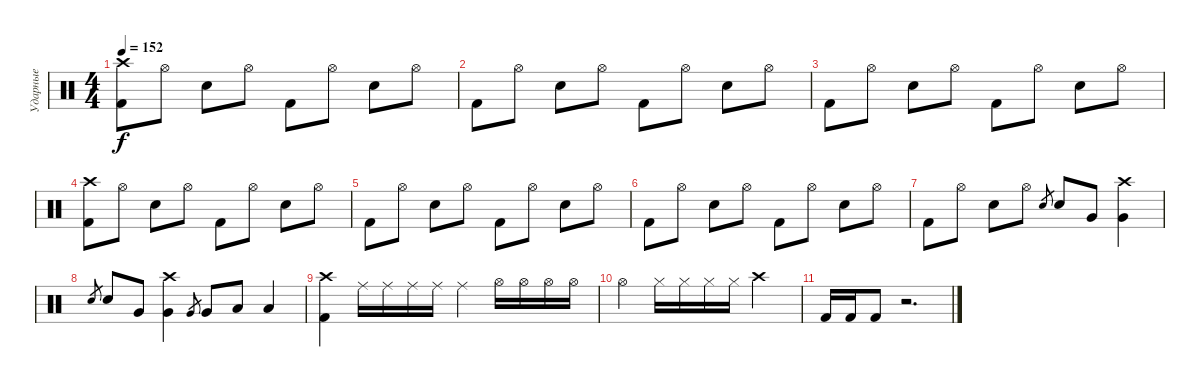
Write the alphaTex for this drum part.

\track ("Ударные" "Ударные") {instrument percussion}
\staff {score}
\articulation defaults
\ts (4 4)
\tempo 152
\clef neutral
\ks c
("Crash high (hit)" "Kick (hit) 2").8{dy f} "Hi-Hat (open)".8 "Electric Snare (hit)".8 "Hi-Hat (open)".8 "Kick (hit) 2".8 "Hi-Hat (open)".8 "Electric Snare (hit)".8 "Hi-Hat (open)".8 |
"Kick (hit) 2".8 "Hi-Hat (open)".8 "Electric Snare (hit)".8 "Hi-Hat (open)".8 "Kick (hit) 2".8 "Hi-Hat (open)".8 "Electric Snare (hit)".8 "Hi-Hat (open)".8 |
"Kick (hit) 2".8 "Hi-Hat (open)".8 "Electric Snare (hit)".8 "Hi-Hat (open)".8 "Kick (hit) 2".8 "Hi-Hat (open)".8 "Electric Snare (hit)".8 "Hi-Hat (open)".8 |
("Crash high (hit)" "Kick (hit) 2").8 "Hi-Hat (open)".8 "Electric Snare (hit)".8 "Hi-Hat (open)".8 "Kick (hit) 2".8 "Hi-Hat (open)".8 "Electric Snare (hit)".8 "Hi-Hat (open)".8 |
"Kick (hit) 2".8 "Hi-Hat (open)".8 "Electric Snare (hit)".8 "Hi-Hat (open)".8 "Kick (hit) 2".8 "Hi-Hat (open)".8 "Electric Snare (hit)".8 "Hi-Hat (open)".8 |
"Kick (hit) 2".8 "Hi-Hat (open)".8 "Electric Snare (hit)".8 "Hi-Hat (open)".8 "Kick (hit) 2".8 "Hi-Hat (open)".8 "Electric Snare (hit)".8 "Hi-Hat (open)".8 |
"Kick (hit) 2".8 "Hi-Hat (open)".8 "Electric Snare (hit)".8 "Hi-Hat (open)".8 "Electric Snare (hit)".8{gr} "Electric Snare (hit)".8 "Very Low Tom (hit)".8 ("Crash high (hit)" "Very Low Tom (hit)").4 |
"Electric Snare (hit)".8{gr} "Electric Snare (hit)".8 "Very Low Tom (hit)".8 ("Crash high (hit)" "Very Low Tom (hit)").4 "Very Low Tom (hit)".8{gr} "Very Low Tom (hit)".8 "Low Floor Tom (hit)".8 "Low Floor Tom (hit)".4 |
("Crash high (hit)" "Kick (hit) 2").4 "Ride (middle)".16 "Ride (middle)".16 "Ride (middle)".16 "Ride (middle)".16 "Ride (middle)".4 "Hi-Hat (open)".16 "Hi-Hat (open)".16 "Hi-Hat (open)".16 "Hi-Hat (open)".16 |
"Hi-Hat (open)".4 "Hi-Hat (closed)".16 "Hi-Hat (closed)".16 "Hi-Hat (closed)".16 "Hi-Hat (closed)".16 "Crash high (hit)".2 |
"Kick (hit) 2".16 "Kick (hit) 2".16 "Kick (hit) 2".8 r.2{d}
